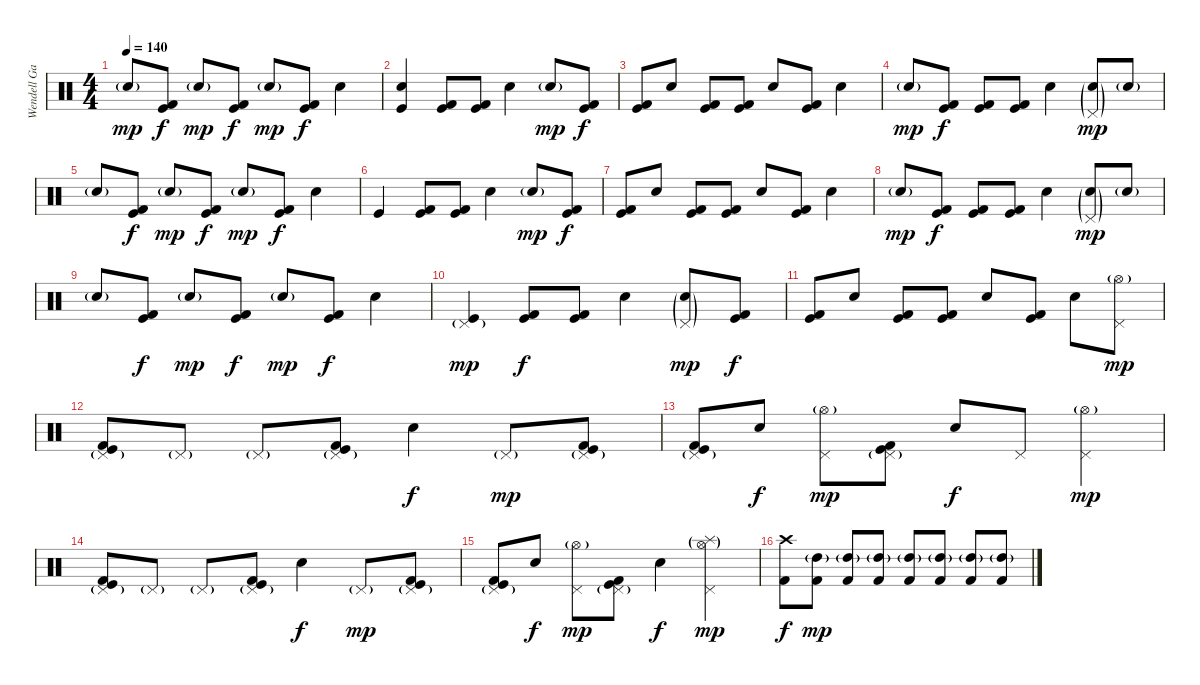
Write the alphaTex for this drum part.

\track ("Wendell Garcia(Drums)" "Wendell Ga") {instrument percussion}
\staff {score}
\articulation defaults
\ts (4 4)
\tempo 140
\clef neutral
\ks c "Electric Snare (hit)"{g}.8{dy mp}
("Kick (hit) 2" "Kick (hit)").8{dy f} "Electric Snare (hit)"{g}.8{dy mp} ("Kick (hit) 2" "Kick (hit)").8{dy f} "Electric Snare (hit)"{g}.8{dy mp} ("Kick (hit) 2" "Kick (hit)").8{dy f} "Electric Snare (hit)".4 |
("Electric Snare (hit)" "Kick (hit)").4 ("Kick (hit) 2" "Kick (hit)").8 ("Kick (hit) 2" "Kick (hit)").8 "Electric Snare (hit)".4 "Electric Snare (hit)"{g}.8{dy mp} ("Kick (hit) 2" "Kick (hit)").8{dy f} |
("Kick (hit) 2" "Kick (hit)").8 "Electric Snare (hit)".8 ("Kick (hit) 2" "Kick (hit)").8 ("Kick (hit) 2" "Kick (hit)").8 "Electric Snare (hit)".8 ("Kick (hit) 2" "Kick (hit)").8 "Electric Snare (hit)".4 |
"Electric Snare (hit)"{g}.8{dy mp} ("Kick (hit) 2" "Kick (hit)").8{dy f} ("Kick (hit) 2" "Kick (hit)").8 ("Kick (hit) 2" "Kick (hit)").8 "Electric Snare (hit)".4 ("Electric Snare (hit)"{g} "Pedal Hi-Hat (hit)"{g}).8{dy mp} "Electric Snare (hit)"{g}.8 |
"Electric Snare (hit)"{g}.8 ("Kick (hit) 2" "Kick (hit)").8{dy f} "Electric Snare (hit)"{g}.8{dy mp} ("Kick (hit) 2" "Kick (hit)").8{dy f} "Electric Snare (hit)"{g}.8{dy mp} ("Kick (hit) 2" "Kick (hit)").8{dy f} "Electric Snare (hit)".4 |
"Kick (hit)".4 ("Kick (hit) 2" "Kick (hit)").8 ("Kick (hit) 2" "Kick (hit)").8 "Electric Snare (hit)".4 "Electric Snare (hit)"{g}.8{dy mp} ("Kick (hit) 2" "Kick (hit)").8{dy f} |
("Kick (hit) 2" "Kick (hit)").8 "Electric Snare (hit)".8 ("Kick (hit) 2" "Kick (hit)").8 ("Kick (hit) 2" "Kick (hit)").8 "Electric Snare (hit)".8 ("Kick (hit) 2" "Kick (hit)").8 "Electric Snare (hit)".4 |
"Electric Snare (hit)"{g}.8{dy mp} ("Kick (hit) 2" "Kick (hit)").8{dy f} ("Kick (hit) 2" "Kick (hit)").8 ("Kick (hit) 2" "Kick (hit)").8 "Electric Snare (hit)".4 ("Electric Snare (hit)"{g} "Pedal Hi-Hat (hit)"{g}).8{dy mp} "Electric Snare (hit)"{g}.8 |
"Electric Snare (hit)"{g}.8 ("Kick (hit) 2" "Kick (hit)").8{dy f} "Electric Snare (hit)"{g}.8{dy mp} ("Kick (hit) 2" "Kick (hit)").8{dy f} "Electric Snare (hit)"{g}.8{dy mp} ("Kick (hit) 2" "Kick (hit)").8{dy f} "Electric Snare (hit)".4 |
("Kick (hit)" "Pedal Hi-Hat (hit)"{g}).4{dy mp} ("Kick (hit) 2" "Kick (hit)").8{dy f} ("Kick (hit) 2" "Kick (hit)").8 "Electric Snare (hit)".4 ("Electric Snare (hit)"{g} "Pedal Hi-Hat (hit)"{g}).8{dy mp} ("Kick (hit) 2" "Kick (hit)").8{dy f} |
("Kick (hit) 2" "Kick (hit)").8 "Electric Snare (hit)".8 ("Kick (hit) 2" "Kick (hit)").8 ("Kick (hit) 2" "Kick (hit)").8 "Electric Snare (hit)".8 ("Kick (hit) 2" "Kick (hit)").8 "Electric Snare (hit)".8 ("Pedal Hi-Hat (hit)" "Hi-Hat (open)"{g}).8{dy mp} |
("Pedal Hi-Hat (hit)"{g} "Kick (hit) 2" "Kick (hit)").8 "Pedal Hi-Hat (hit)"{g}.8 "Pedal Hi-Hat (hit)"{g}.8 ("Pedal Hi-Hat (hit)"{g} "Kick (hit) 2" "Kick (hit)").8 "Electric Snare (hit)".4{dy f} "Pedal Hi-Hat (hit)"{g}.8{dy mp} ("Pedal Hi-Hat (hit)"{g} "Kick (hit) 2" "Kick (hit)").8 |
("Pedal Hi-Hat (hit)"{g} "Kick (hit) 2" "Kick (hit)").8 "Electric Snare (hit)".8{dy f} ("Pedal Hi-Hat (hit)" "Hi-Hat (open)"{g}).8{dy mp} ("Pedal Hi-Hat (hit)"{g} "Kick (hit) 2" "Kick (hit)").8 "Electric Snare (hit)".8{dy f} "Pedal Hi-Hat (hit)".8 ("Pedal Hi-Hat (hit)" "Hi-Hat (open)"{g}).4{dy mp} |
("Pedal Hi-Hat (hit)"{g} "Kick (hit) 2" "Kick (hit)").8 "Pedal Hi-Hat (hit)"{g}.8 "Pedal Hi-Hat (hit)"{g}.8 ("Pedal Hi-Hat (hit)"{g} "Kick (hit) 2" "Kick (hit)").8 "Electric Snare (hit)".4{dy f} "Pedal Hi-Hat (hit)"{g}.8{dy mp} ("Pedal Hi-Hat (hit)"{g} "Kick (hit) 2" "Kick (hit)").8 |
("Pedal Hi-Hat (hit)"{g} "Kick (hit) 2" "Kick (hit)").8 "Electric Snare (hit)".8{dy f} ("Pedal Hi-Hat (hit)" "Hi-Hat (open)"{g}).8{dy mp} ("Pedal Hi-Hat (hit)"{g} "Kick (hit) 2" "Kick (hit)").8 "Electric Snare (hit)".4{dy f} ("Pedal Hi-Hat (hit)" "Hi-Hat (open)"{g} "Splash (hit)"{g}).4{dy mp} |
("Crash high (hit)" "Kick (hit) 2").8{dy f} ("High Tom (hit)"{g} "Kick (hit) 2").8{dy mp} ("High Tom (hit)"{g} "Kick (hit) 2").8 ("High Tom (hit)"{g} "Kick (hit) 2").8 ("High Tom (hit)"{g} "Kick (hit) 2").8 ("High Tom (hit)"{g} "Kick (hit) 2").8 ("High Tom (hit)"{g} "Kick (hit) 2").8 ("High Tom (hit)"{g} "Kick (hit) 2").8
